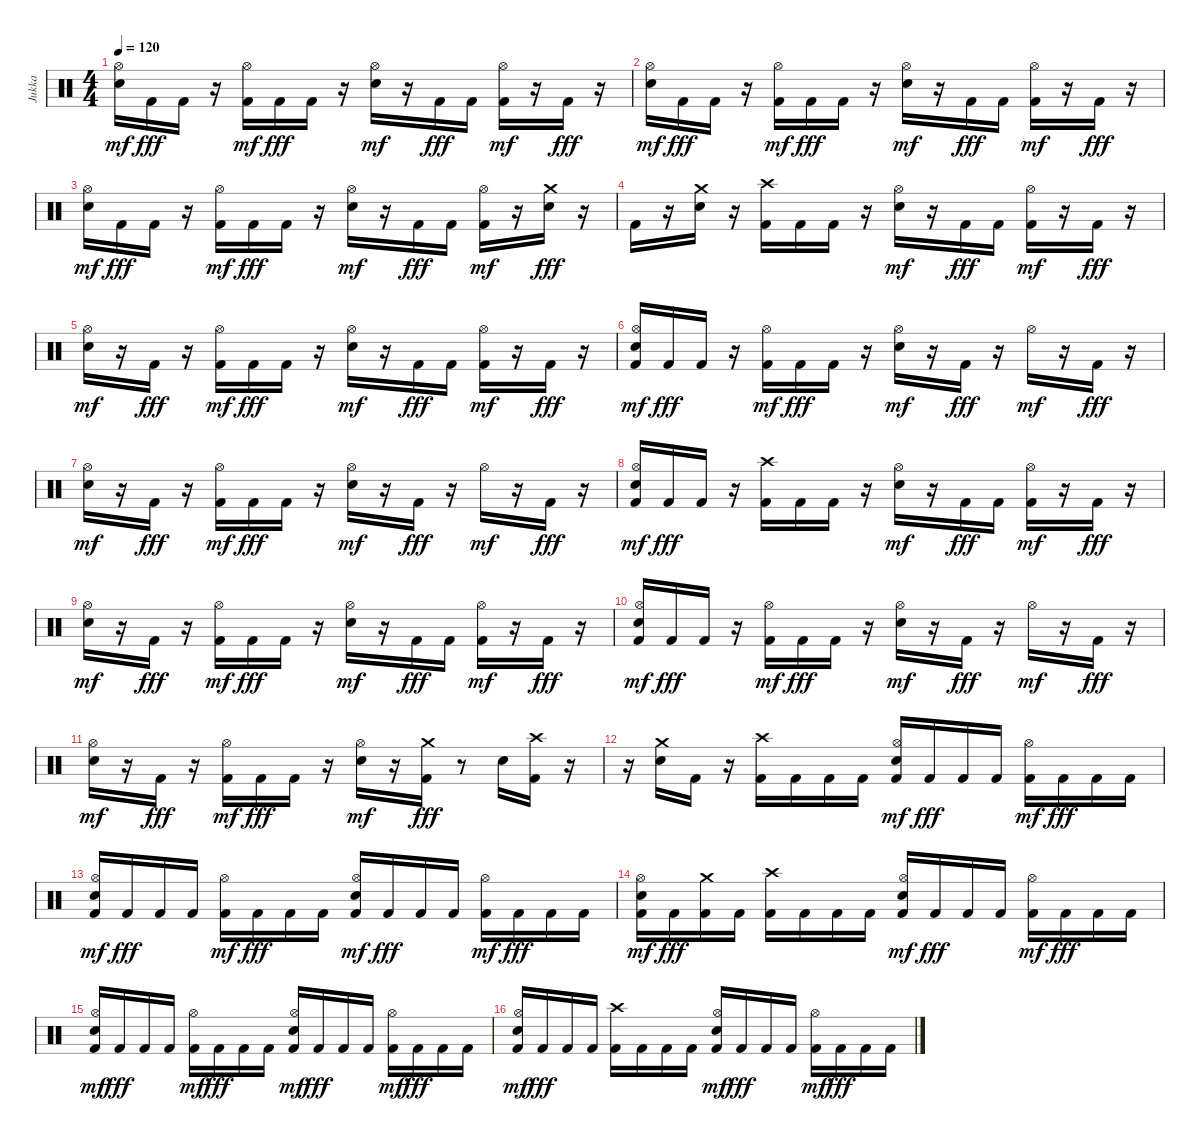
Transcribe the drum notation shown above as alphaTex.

\track ("Jukka" "Jukka") {instrument percussion}
\staff {score}
\articulation defaults
\ts (4 4)
\tempo 120
\clef neutral
\ks c
("Electric Snare (hit)" "Hi-Hat (open)").16{dy mf} "Kick (hit) 2".16{dy fff} "Kick (hit) 2".16 r.16 ("Kick (hit) 2" "Hi-Hat (open)").16{dy mf} "Kick (hit) 2".16{dy fff} "Kick (hit) 2".16 r.16 ("Electric Snare (hit)" "Hi-Hat (open)").16{dy mf} r.16 "Kick (hit) 2".16{dy fff} "Kick (hit) 2".16 ("Kick (hit) 2" "Hi-Hat (open)").16{dy mf} r.16 "Kick (hit) 2".16{dy fff} r.16 |
("Electric Snare (hit)" "Hi-Hat (open)").16{dy mf} "Kick (hit) 2".16{dy fff} "Kick (hit) 2".16 r.16 ("Kick (hit) 2" "Hi-Hat (open)").16{dy mf} "Kick (hit) 2".16{dy fff} "Kick (hit) 2".16 r.16 ("Electric Snare (hit)" "Hi-Hat (open)").16{dy mf} r.16 "Kick (hit) 2".16{dy fff} "Kick (hit) 2".16 ("Kick (hit) 2" "Hi-Hat (open)").16{dy mf} r.16 "Kick (hit) 2".16{dy fff} r.16 |
("Electric Snare (hit)" "Hi-Hat (open)").16{dy mf} "Kick (hit) 2".16{dy fff} "Kick (hit) 2".16 r.16 ("Kick (hit) 2" "Hi-Hat (open)").16{dy mf} "Kick (hit) 2".16{dy fff} "Kick (hit) 2".16 r.16 ("Electric Snare (hit)" "Hi-Hat (open)").16{dy mf} r.16 "Kick (hit) 2".16{dy fff} "Kick (hit) 2".16 ("Kick (hit) 2" "Hi-Hat (open)").16{dy mf} r.16 ("Electric Snare (hit)" "Crash medium (hit)").16{dy fff} r.16 |
"Kick (hit) 2".16 r.16 ("Electric Snare (hit)" "Crash medium (hit)").16 r.16 ("Kick (hit) 2" "Crash high (hit)").16 "Kick (hit) 2".16 "Kick (hit) 2".16 r.16 ("Electric Snare (hit)" "Hi-Hat (open)").16{dy mf} r.16 "Kick (hit) 2".16{dy fff} "Kick (hit) 2".16 ("Kick (hit) 2" "Hi-Hat (open)").16{dy mf} r.16 "Kick (hit) 2".16{dy fff} r.16 |
("Electric Snare (hit)" "Hi-Hat (open)").16{dy mf} r.16 "Kick (hit) 2".16{dy fff} r.16 ("Kick (hit) 2" "Hi-Hat (open)").16{dy mf} "Kick (hit) 2".16{dy fff} "Kick (hit) 2".16 r.16 ("Electric Snare (hit)" "Hi-Hat (open)").16{dy mf} r.16 "Kick (hit) 2".16{dy fff} "Kick (hit) 2".16 ("Kick (hit) 2" "Hi-Hat (open)").16{dy mf} r.16 "Kick (hit) 2".16{dy fff} r.16 |
("Electric Snare (hit)" "Kick (hit) 2" "Hi-Hat (open)").16{dy mf} "Kick (hit) 2".16{dy fff} "Kick (hit) 2".16 r.16 ("Kick (hit) 2" "Hi-Hat (open)").16{dy mf} "Kick (hit) 2".16{dy fff} "Kick (hit) 2".16 r.16 ("Electric Snare (hit)" "Hi-Hat (open)").16{dy mf} r.16 "Kick (hit) 2".16{dy fff} r.16 "Hi-Hat (open)".16{dy mf} r.16 "Kick (hit) 2".16{dy fff} r.16 |
("Electric Snare (hit)" "Hi-Hat (open)").16{dy mf} r.16 "Kick (hit) 2".16{dy fff} r.16 ("Kick (hit) 2" "Hi-Hat (open)").16{dy mf} "Kick (hit) 2".16{dy fff} "Kick (hit) 2".16 r.16 ("Electric Snare (hit)" "Hi-Hat (open)").16{dy mf} r.16 "Kick (hit) 2".16{dy fff} r.16 "Hi-Hat (open)".16{dy mf} r.16 "Kick (hit) 2".16{dy fff} r.16 |
("Electric Snare (hit)" "Kick (hit) 2" "Hi-Hat (open)").16{dy mf} "Kick (hit) 2".16{dy fff} "Kick (hit) 2".16 r.16 ("Kick (hit) 2" "Crash high (hit)").16 "Kick (hit) 2".16 "Kick (hit) 2".16 r.16 ("Electric Snare (hit)" "Hi-Hat (open)").16{dy mf} r.16 "Kick (hit) 2".16{dy fff} "Kick (hit) 2".16 ("Kick (hit) 2" "Hi-Hat (open)").16{dy mf} r.16 "Kick (hit) 2".16{dy fff} r.16 |
("Electric Snare (hit)" "Hi-Hat (open)").16{dy mf} r.16 "Kick (hit) 2".16{dy fff} r.16 ("Kick (hit) 2" "Hi-Hat (open)").16{dy mf} "Kick (hit) 2".16{dy fff} "Kick (hit) 2".16 r.16 ("Electric Snare (hit)" "Hi-Hat (open)").16{dy mf} r.16 "Kick (hit) 2".16{dy fff} "Kick (hit) 2".16 ("Kick (hit) 2" "Hi-Hat (open)").16{dy mf} r.16 "Kick (hit) 2".16{dy fff} r.16 |
("Electric Snare (hit)" "Kick (hit) 2" "Hi-Hat (open)").16{dy mf} "Kick (hit) 2".16{dy fff} "Kick (hit) 2".16 r.16 ("Kick (hit) 2" "Hi-Hat (open)").16{dy mf} "Kick (hit) 2".16{dy fff} "Kick (hit) 2".16 r.16 ("Electric Snare (hit)" "Hi-Hat (open)").16{dy mf} r.16 "Kick (hit) 2".16{dy fff} r.16 "Hi-Hat (open)".16{dy mf} r.16 "Kick (hit) 2".16{dy fff} r.16 |
("Electric Snare (hit)" "Hi-Hat (open)").16{dy mf} r.16 "Kick (hit) 2".16{dy fff} r.16 ("Kick (hit) 2" "Hi-Hat (open)").16{dy mf} "Kick (hit) 2".16{dy fff} "Kick (hit) 2".16 r.16 ("Electric Snare (hit)" "Hi-Hat (open)").16{dy mf} r.16 ("Kick (hit) 2" "Crash medium (hit)").16{dy fff} r.8 "Electric Snare (hit)".16 ("Kick (hit) 2" "Crash high (hit)").16 r.16 |
r.16 ("Electric Snare (hit)" "Crash medium (hit)").16 "Kick (hit) 2".16 r.16 ("Kick (hit) 2" "Crash high (hit)").16{volume 13} "Kick (hit) 2".16 "Kick (hit) 2".16 "Kick (hit) 2".16 ("Electric Snare (hit)" "Kick (hit) 2" "Hi-Hat (open)").16{dy mf} "Kick (hit) 2".16{dy fff} "Kick (hit) 2".16 "Kick (hit) 2".16 ("Kick (hit) 2" "Hi-Hat (open)").16{dy mf} "Kick (hit) 2".16{dy fff} "Kick (hit) 2".16 "Kick (hit) 2".16 |
("Electric Snare (hit)" "Kick (hit) 2" "Hi-Hat (open)").16{dy mf} "Kick (hit) 2".16{dy fff} "Kick (hit) 2".16 "Kick (hit) 2".16 ("Kick (hit) 2" "Hi-Hat (open)").16{dy mf} "Kick (hit) 2".16{dy fff} "Kick (hit) 2".16 "Kick (hit) 2".16 ("Electric Snare (hit)" "Kick (hit) 2" "Hi-Hat (open)").16{dy mf} "Kick (hit) 2".16{dy fff} "Kick (hit) 2".16 "Kick (hit) 2".16 ("Kick (hit) 2" "Hi-Hat (open)").16{dy mf} "Kick (hit) 2".16{dy fff} "Kick (hit) 2".16 "Kick (hit) 2".16 |
("Electric Snare (hit)" "Kick (hit) 2" "Hi-Hat (open)").16{dy mf} "Kick (hit) 2".16{dy fff} ("Kick (hit) 2" "Crash medium (hit)").16 "Kick (hit) 2".16 ("Kick (hit) 2" "Crash high (hit)").16 "Kick (hit) 2".16 "Kick (hit) 2".16 "Kick (hit) 2".16 ("Electric Snare (hit)" "Kick (hit) 2" "Hi-Hat (open)").16{dy mf} "Kick (hit) 2".16{dy fff} "Kick (hit) 2".16 "Kick (hit) 2".16 ("Kick (hit) 2" "Hi-Hat (open)").16{dy mf} "Kick (hit) 2".16{dy fff} "Kick (hit) 2".16 "Kick (hit) 2".16 |
("Electric Snare (hit)" "Kick (hit) 2" "Hi-Hat (open)").16{dy mf} "Kick (hit) 2".16{dy fff} "Kick (hit) 2".16 "Kick (hit) 2".16 ("Kick (hit) 2" "Hi-Hat (open)").16{dy mf} "Kick (hit) 2".16{dy fff} "Kick (hit) 2".16 "Kick (hit) 2".16 ("Electric Snare (hit)" "Kick (hit) 2" "Hi-Hat (open)").16{dy mf} "Kick (hit) 2".16{dy fff} "Kick (hit) 2".16 "Kick (hit) 2".16 ("Kick (hit) 2" "Hi-Hat (open)").16{dy mf} "Kick (hit) 2".16{dy fff} "Kick (hit) 2".16 "Kick (hit) 2".16 |
("Electric Snare (hit)" "Kick (hit) 2" "Hi-Hat (open)").16{dy mf} "Kick (hit) 2".16{dy fff} "Kick (hit) 2".16 "Kick (hit) 2".16 ("Kick (hit) 2" "Crash high (hit)").16{volume 12} "Kick (hit) 2".16{volume 12} "Kick (hit) 2".16{volume 12} "Kick (hit) 2".16 ("Electric Snare (hit)" "Kick (hit) 2" "Hi-Hat (open)").16{dy mf volume 12} "Kick (hit) 2".16{dy fff} "Kick (hit) 2".16{volume 12} "Kick (hit) 2".16{volume 12} ("Kick (hit) 2" "Hi-Hat (open)").16{dy mf} "Kick (hit) 2".16{dy fff volume 12} "Kick (hit) 2".16{volume 12} "Kick (hit) 2".16
